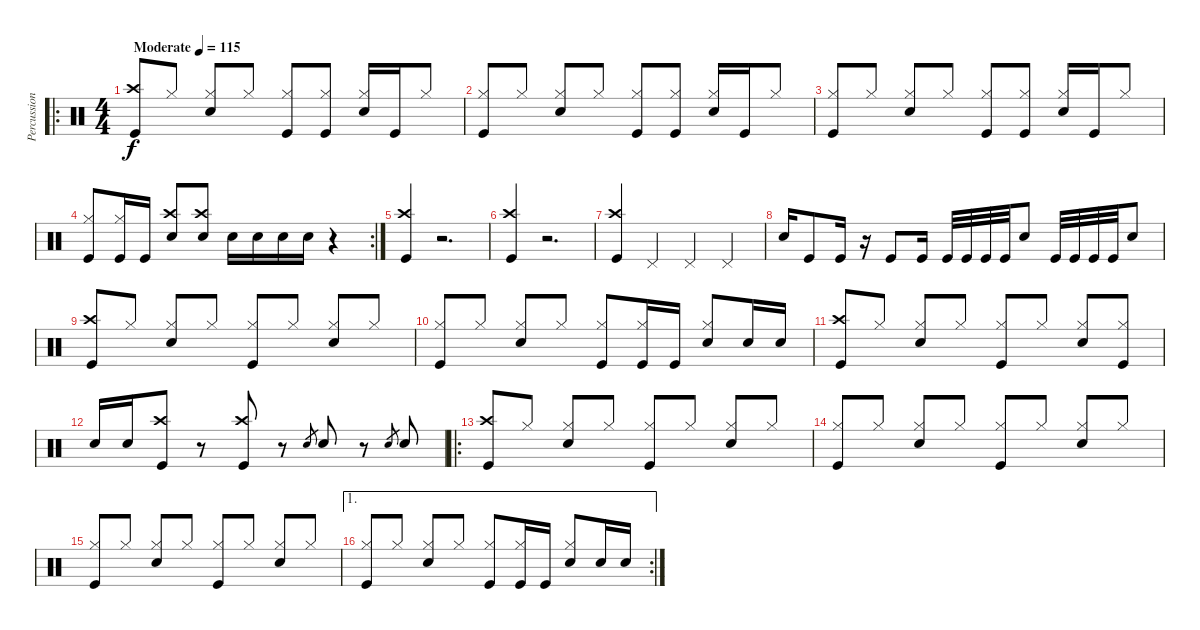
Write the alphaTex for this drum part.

\track ("Percussion" "Percussion") {instrument percussion}
\staff {score}
\articulation defaults
\ro
\ts (4 4)
\tempo (115 "Moderate")
\clef neutral
\ks c
("Crash high (hit)" "Kick (hit)").8{dy f beam Up} "Hi-Hat (closed)".8{beam Up} ("Hi-Hat (closed)" "Snare (hit) 2").8{beam Up} "Hi-Hat (closed)".8{beam Up} ("Hi-Hat (closed)" "Kick (hit)").8{beam Up} ("Hi-Hat (closed)" "Kick (hit)").8{beam Up} ("Hi-Hat (closed)" "Snare (hit) 2").16{beam Up} "Kick (hit)".16{beam Up} "Hi-Hat (closed)".8{beam Up} |
("Hi-Hat (closed)" "Kick (hit)").8{beam Up} "Hi-Hat (closed)".8{beam Up} ("Hi-Hat (closed)" "Snare (hit) 2").8{beam Up} "Hi-Hat (closed)".8{beam Up} ("Hi-Hat (closed)" "Kick (hit)").8{beam Up} ("Hi-Hat (closed)" "Kick (hit)").8{beam Up} ("Hi-Hat (closed)" "Snare (hit) 2").16{beam Up} "Kick (hit)".16{beam Up} "Hi-Hat (closed)".8{beam Up} |
("Hi-Hat (closed)" "Kick (hit)").8{beam Up} "Hi-Hat (closed)".8{beam Up} ("Hi-Hat (closed)" "Snare (hit) 2").8{beam Up} "Hi-Hat (closed)".8{beam Up} ("Hi-Hat (closed)" "Kick (hit)").8{beam Up} ("Hi-Hat (closed)" "Kick (hit)").8{beam Up} ("Hi-Hat (closed)" "Snare (hit) 2").16{beam Up} "Kick (hit)".16{beam Up} "Hi-Hat (closed)".8{beam Up} |
\rc 2
("Hi-Hat (closed)" "Kick (hit)").8{beam Up} ("Hi-Hat (closed)" "Kick (hit)").16{beam Up} "Kick (hit)".16{beam Up} ("Crash high (hit)" "Snare (hit) 2").8{beam Up} ("Crash high (hit)" "Snare (hit) 2").8{beam Up} "Snare (hit) 2".16 "Snare (hit) 2".16 "Snare (hit) 2".16 "Snare (hit) 2".16 r.4 |
("Crash high (hit)" "Kick (hit)").4{beam Up} r.2{d} |
("Crash high (hit)" "Kick (hit)").4{beam Up} r.2{d} |
("Crash high (hit)" "Kick (hit)").4{beam Up} "Pedal Hi-Hat (hit)".4 "Pedal Hi-Hat (hit)".4 "Pedal Hi-Hat (hit)".4 |
"Snare (hit) 2".16{beam Up} "Kick (hit)".8{beam Up} "Kick (hit)".16{beam Up} r.16 "Kick (hit)".8{beam Up} "Kick (hit)".16{beam Up} "Kick (hit)".32 "Kick (hit)".32 "Kick (hit)".32 "Kick (hit)".32 "Snare (hit) 2".8 "Kick (hit)".32 "Kick (hit)".32 "Kick (hit)".32 "Kick (hit)".32 "Snare (hit) 2".8 |
("Crash high (hit)" "Kick (hit)").8{beam Up} "Hi-Hat (closed)".8{beam Up} ("Hi-Hat (closed)" "Snare (hit) 2").8{beam Up} "Hi-Hat (closed)".8{beam Up} ("Hi-Hat (closed)" "Kick (hit)").8{beam Up} "Hi-Hat (closed)".8{beam Up} ("Hi-Hat (closed)" "Snare (hit) 2").8{beam Up} "Hi-Hat (closed)".8{beam Up} |
("Hi-Hat (closed)" "Kick (hit)").8{beam Up} "Hi-Hat (closed)".8{beam Up} ("Hi-Hat (closed)" "Snare (hit) 2").8{beam Up} "Hi-Hat (closed)".8{beam Up} ("Hi-Hat (closed)" "Kick (hit)").8{beam Up} ("Hi-Hat (closed)" "Kick (hit)").16{beam Up} "Kick (hit)".16{beam Up} ("Hi-Hat (closed)" "Snare (hit) 2").8{beam Up} "Snare (hit) 2".16{beam Up} "Snare (hit) 2".16{beam Up} |
("Crash high (hit)" "Kick (hit)").8{beam Up} "Hi-Hat (closed)".8{beam Up} ("Hi-Hat (closed)" "Snare (hit) 2").8{beam Up} "Hi-Hat (closed)".8{beam Up} ("Hi-Hat (closed)" "Kick (hit)").8{beam Up} "Hi-Hat (closed)".8{beam Up} ("Hi-Hat (closed)" "Snare (hit) 2").8{beam Up} ("Hi-Hat (closed)" "Kick (hit)").8{beam Up} |
"Snare (hit) 2".16{beam Up} "Snare (hit) 2".16{beam Up} ("Crash high (hit)" "Kick (hit)").8{beam Up} r.8 ("Crash high (hit)" "Kick (hit)").8{beam Up} r.8 "Snare (hit) 2".8{gr} "Snare (hit) 2".8{beam Up} r.8 "Snare (hit) 2".8{gr} "Snare (hit) 2".8{beam Up} |
\ro
("Crash high (hit)" "Kick (hit)").8{beam Up} "Hi-Hat (closed)".8{beam Up} ("Hi-Hat (closed)" "Snare (hit) 2").8{beam Up} "Hi-Hat (closed)".8{beam Up} ("Hi-Hat (closed)" "Kick (hit)").8{beam Up} "Hi-Hat (closed)".8{beam Up} ("Hi-Hat (closed)" "Snare (hit) 2").8{beam Up} "Hi-Hat (closed)".8{beam Up} |
("Hi-Hat (closed)" "Kick (hit)").8{beam Up} "Hi-Hat (closed)".8{beam Up} ("Hi-Hat (closed)" "Snare (hit) 2").8{beam Up} "Hi-Hat (closed)".8{beam Up} ("Hi-Hat (closed)" "Kick (hit)").8{beam Up} "Hi-Hat (closed)".8{beam Up} ("Hi-Hat (closed)" "Snare (hit) 2").8{beam Up} "Hi-Hat (closed)".8{beam Up} |
("Hi-Hat (closed)" "Kick (hit)").8{beam Up} "Hi-Hat (closed)".8{beam Up} ("Hi-Hat (closed)" "Snare (hit) 2").8{beam Up} "Hi-Hat (closed)".8{beam Up} ("Hi-Hat (closed)" "Kick (hit)").8{beam Up} "Hi-Hat (closed)".8{beam Up} ("Hi-Hat (closed)" "Snare (hit) 2").8{beam Up} "Hi-Hat (closed)".8{beam Up} |
\ae 1
\rc 2
("Hi-Hat (closed)" "Kick (hit)").8{beam Up} "Hi-Hat (closed)".8{beam Up} ("Hi-Hat (closed)" "Snare (hit) 2").8{beam Up} "Hi-Hat (closed)".8{beam Up} ("Hi-Hat (closed)" "Kick (hit)").8{beam Up} ("Hi-Hat (closed)" "Kick (hit)").16{beam Up} "Kick (hit)".16{beam Up} ("Hi-Hat (closed)" "Snare (hit) 2").8{beam Up} "Snare (hit) 2".16{beam Up} "Snare (hit) 2".16{beam Up}
